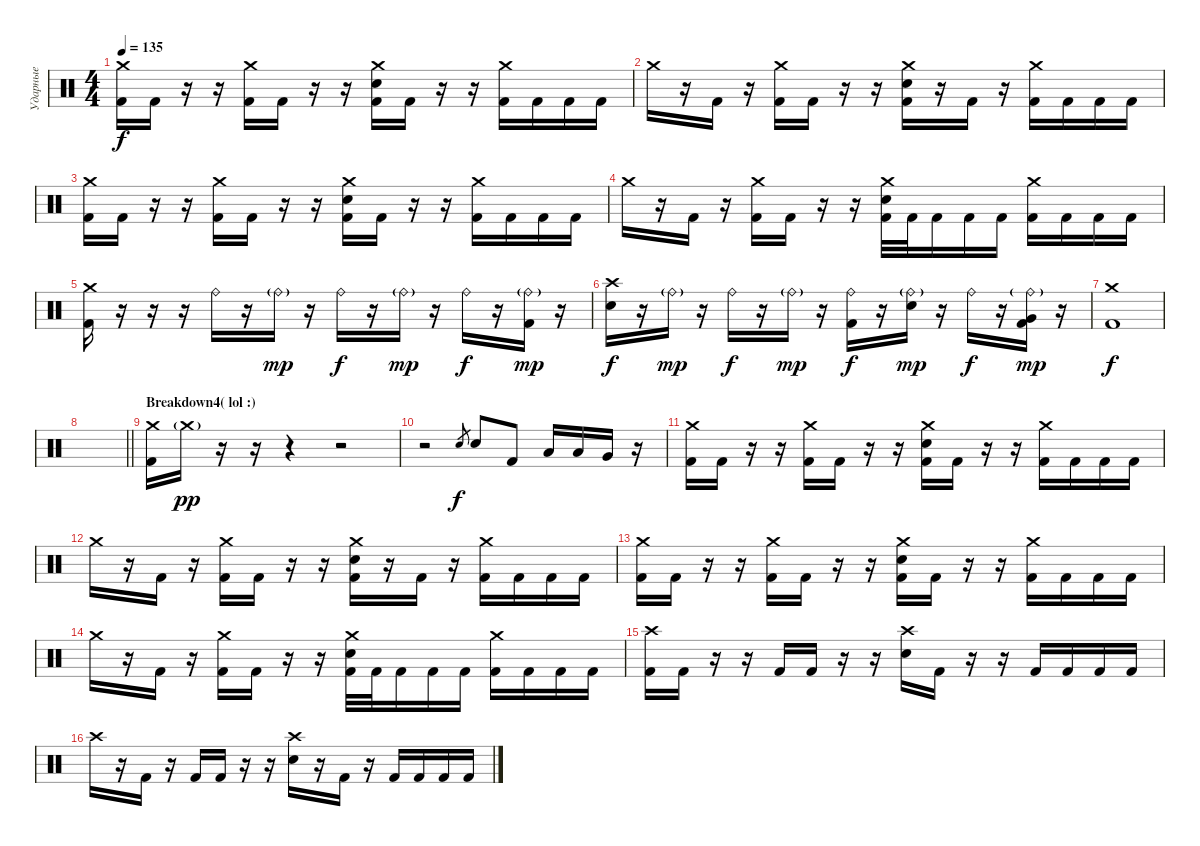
\track ("Ударные" "Ударные") {instrument percussion}
\staff {score}
\articulation defaults
\ts (4 4)
\tempo 135
\clef neutral
\ks c
("Crash medium (hit)" "Kick (hit) 2").16{dy f} "Kick (hit) 2".16 r.16 r.16 ("Crash medium (hit)" "Kick (hit) 2").16 "Kick (hit) 2".16 r.16 r.16 ("Crash medium (hit)" "Electric Snare (hit)" "Kick (hit) 2").16 "Kick (hit) 2".16 r.16 r.16 ("Crash medium (hit)" "Kick (hit) 2").16 "Kick (hit) 2".16 "Kick (hit) 2".16 "Kick (hit) 2".16 |
"Crash medium (hit)".16 r.16 "Kick (hit) 2".16 r.16 ("Crash medium (hit)" "Kick (hit) 2").16 "Kick (hit) 2".16 r.16 r.16 ("Crash medium (hit)" "Electric Snare (hit)" "Kick (hit) 2").16 r.16 "Kick (hit) 2".16 r.16 ("Crash medium (hit)" "Kick (hit) 2").16 "Kick (hit) 2".16 "Kick (hit) 2".16 "Kick (hit) 2".16 |
("Crash medium (hit)" "Kick (hit) 2").16 "Kick (hit) 2".16 r.16 r.16 ("Crash medium (hit)" "Kick (hit) 2").16 "Kick (hit) 2".16 r.16 r.16 ("Crash medium (hit)" "Electric Snare (hit)" "Kick (hit) 2").16 "Kick (hit) 2".16 r.16 r.16 ("Crash medium (hit)" "Kick (hit) 2").16 "Kick (hit) 2".16 "Kick (hit) 2".16 "Kick (hit) 2".16 |
"Crash medium (hit)".16 r.16 "Kick (hit) 2".16 r.16 ("Crash medium (hit)" "Kick (hit) 2").16 "Kick (hit) 2".16 r.16 r.16 ("Crash medium (hit)" "Electric Snare (hit)" "Kick (hit) 2").32 "Kick (hit) 2".32 "Kick (hit) 2".16 "Kick (hit) 2".16 "Kick (hit) 2".16 ("Crash medium (hit)" "Kick (hit) 2").16 "Kick (hit) 2".16 "Kick (hit) 2".16 "Kick (hit) 2".16 |
("Crash medium (hit)" "Kick (hit) 2").16 r.16 r.16 r.16 "Ride (bell)".16 r.16 "Ride (bell)"{g}.16{dy mp} r.16 "Ride (bell)".16{dy f} r.16 "Ride (bell)"{g}.16{dy mp} r.16 "Ride (bell)".16{dy f} r.16 ("Ride (bell)"{g} "Kick (hit) 2").16{dy mp} r.16 |
("Crash high (hit)" "Electric Snare (hit)").16{dy f} r.16 "Ride (bell)"{g}.16{dy mp} r.16 "Ride (bell)".16{dy f} r.16 "Ride (bell)"{g}.16{dy mp} r.16 ("Ride (bell)" "Kick (hit) 2").16{dy f} r.16 ("Ride (bell)"{g} "Electric Snare (hit)").16{dy mp} r.16 "Ride (bell)".16{dy f} r.16 ("Ride (bell)"{g} "Very Low Tom (hit)" "Kick (hit) 2").16{dy mp} r.16 |
("Crash medium (hit)" "Kick (hit) 2").1{dy f} |
\barLineRight lightlight
|
\section ("" "Breakdown4( lol :)")
("Crash medium (hit)" "Kick (hit) 2").16 "Crash medium (hit)"{g}.16{dy pp} r.16 r.16 r.4 r.2 |
r.2 "Electric Snare (hit)".8{gr dy f} "Electric Snare (hit)".8 "Kick (hit) 2".8 "Low Tom (hit)".16 "Low Tom (hit)".16 "Very Low Tom (hit)".16 r.16 |
("Crash medium (hit)" "Kick (hit) 2").16 "Kick (hit) 2".16 r.16 r.16 ("Crash medium (hit)" "Kick (hit) 2").16 "Kick (hit) 2".16 r.16 r.16 ("Crash medium (hit)" "Electric Snare (hit)" "Kick (hit) 2").16 "Kick (hit) 2".16 r.16 r.16 ("Crash medium (hit)" "Kick (hit) 2").16 "Kick (hit) 2".16 "Kick (hit) 2".16 "Kick (hit) 2".16 |
"Crash medium (hit)".16 r.16 "Kick (hit) 2".16 r.16 ("Crash medium (hit)" "Kick (hit) 2").16 "Kick (hit) 2".16 r.16 r.16 ("Crash medium (hit)" "Electric Snare (hit)" "Kick (hit) 2").16 r.16 "Kick (hit) 2".16 r.16 ("Crash medium (hit)" "Kick (hit) 2").16 "Kick (hit) 2".16 "Kick (hit) 2".16 "Kick (hit) 2".16 |
("Crash medium (hit)" "Kick (hit) 2").16 "Kick (hit) 2".16 r.16 r.16 ("Crash medium (hit)" "Kick (hit) 2").16 "Kick (hit) 2".16 r.16 r.16 ("Crash medium (hit)" "Electric Snare (hit)" "Kick (hit) 2").16 "Kick (hit) 2".16 r.16 r.16 ("Crash medium (hit)" "Kick (hit) 2").16 "Kick (hit) 2".16 "Kick (hit) 2".16 "Kick (hit) 2".16 |
"Crash medium (hit)".16 r.16 "Kick (hit) 2".16 r.16 ("Crash medium (hit)" "Kick (hit) 2").16 "Kick (hit) 2".16 r.16 r.16 ("Crash medium (hit)" "Electric Snare (hit)" "Kick (hit) 2").32 "Kick (hit) 2".32 "Kick (hit) 2".16 "Kick (hit) 2".16 "Kick (hit) 2".16 ("Crash medium (hit)" "Kick (hit) 2").16 "Kick (hit) 2".16 "Kick (hit) 2".16 "Kick (hit) 2".16 |
("Crash high (hit)" "Kick (hit) 2").16 "Kick (hit) 2".16 r.16 r.16 "Kick (hit) 2".16 "Kick (hit) 2".16 r.16 r.16 ("Crash high (hit)" "Electric Snare (hit)").16 "Kick (hit) 2".16 r.16 r.16 "Kick (hit) 2".16 "Kick (hit) 2".16 "Kick (hit) 2".16 "Kick (hit) 2".16 |
"Crash high (hit)".16 r.16 "Kick (hit) 2".16 r.16 "Kick (hit) 2".16 "Kick (hit) 2".16 r.16 r.16 ("Crash high (hit)" "Electric Snare (hit)").16 r.16 "Kick (hit) 2".16 r.16 "Kick (hit) 2".16 "Kick (hit) 2".16 "Kick (hit) 2".16 "Kick (hit) 2".16
